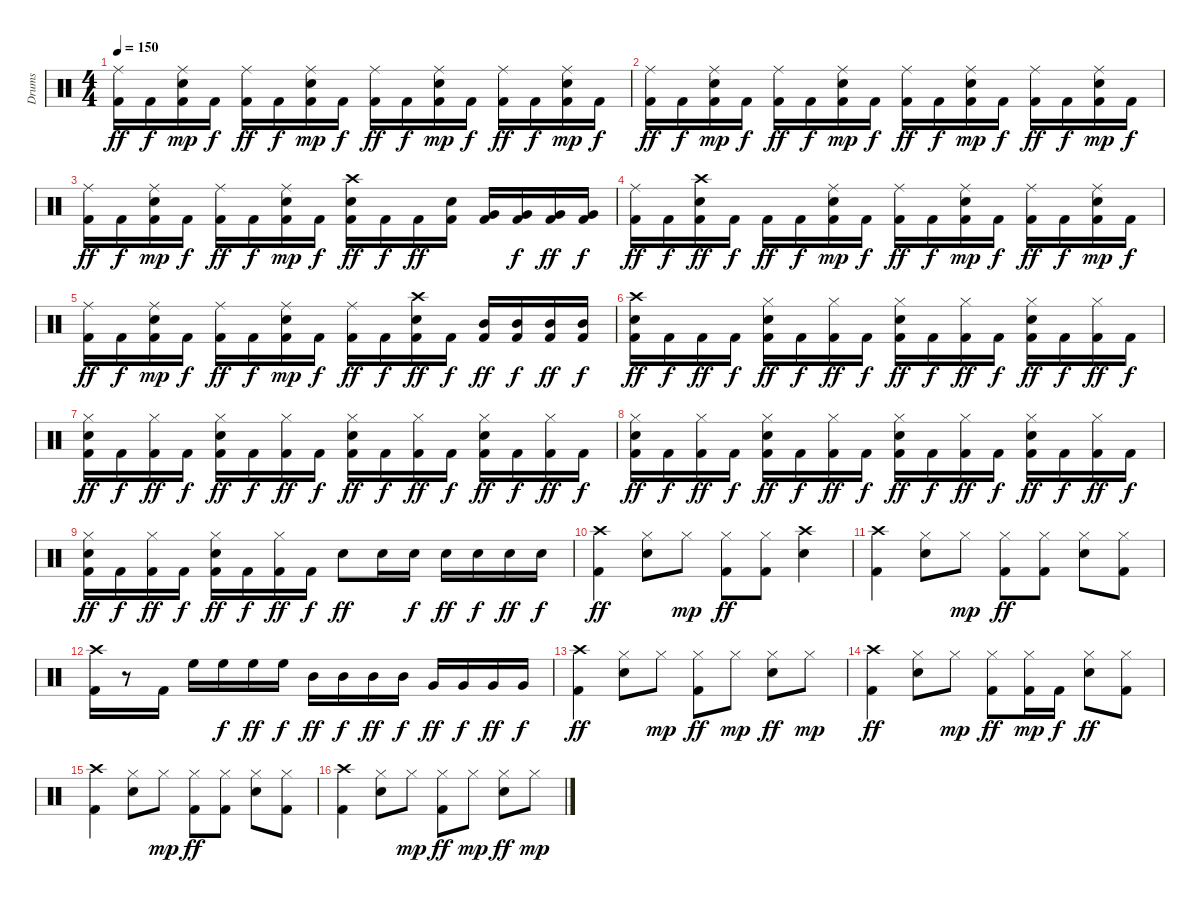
\track ("Drums" "Drums") {instrument percussion}
\staff {score}
\articulation defaults
\ts (4 4)
\tempo 150
\clef neutral
\ks c
("Ride (middle)" "Kick (hit) 2").16{dy ff} "Kick (hit) 2".16{dy f} ("Kick (hit) 2" "Snare (hit) 2" "Ride (middle)").16{dy mp} "Kick (hit) 2".16{dy f} ("Ride (middle)" "Kick (hit) 2").16{dy ff} "Kick (hit) 2".16{dy f} ("Kick (hit) 2" "Snare (hit) 2" "Ride (middle)").16{dy mp} "Kick (hit) 2".16{dy f} ("Ride (middle)" "Kick (hit) 2").16{dy ff} "Kick (hit) 2".16{dy f} ("Kick (hit) 2" "Snare (hit) 2" "Ride (middle)").16{dy mp} "Kick (hit) 2".16{dy f} ("Ride (middle)" "Kick (hit) 2").16{dy ff} "Kick (hit) 2".16{dy f} ("Kick (hit) 2" "Snare (hit) 2" "Ride (middle)").16{dy mp} "Kick (hit) 2".16{dy f} |
("Ride (middle)" "Kick (hit) 2").16{dy ff} "Kick (hit) 2".16{dy f} ("Kick (hit) 2" "Snare (hit) 2" "Ride (middle)").16{dy mp} "Kick (hit) 2".16{dy f} ("Ride (middle)" "Kick (hit) 2").16{dy ff} "Kick (hit) 2".16{dy f} ("Kick (hit) 2" "Snare (hit) 2" "Ride (middle)").16{dy mp} "Kick (hit) 2".16{dy f} ("Ride (middle)" "Kick (hit) 2").16{dy ff} "Kick (hit) 2".16{dy f} ("Kick (hit) 2" "Snare (hit) 2" "Ride (middle)").16{dy mp} "Kick (hit) 2".16{dy f} ("Ride (middle)" "Kick (hit) 2").16{dy ff} "Kick (hit) 2".16{dy f} ("Kick (hit) 2" "Snare (hit) 2" "Ride (middle)").16{dy mp} "Kick (hit) 2".16{dy f} |
("Ride (middle)" "Kick (hit) 2").16{dy ff} "Kick (hit) 2".16{dy f} ("Kick (hit) 2" "Snare (hit) 2" "Ride (middle)").16{dy mp} "Kick (hit) 2".16{dy f} ("Ride (middle)" "Kick (hit) 2").16{dy ff} "Kick (hit) 2".16{dy f} ("Kick (hit) 2" "Snare (hit) 2" "Ride (middle)").16{dy mp} "Kick (hit) 2".16{dy f} ("Kick (hit) 2" "Crash high (hit)" "Snare (hit) 2").16{dy ff} "Kick (hit) 2".16{dy f} "Kick (hit) 2".16{dy ff} ("Snare (hit) 2" "Kick (hit) 2").16 ("Very Low Tom (hit)" "Kick (hit) 2").16 ("Very Low Tom (hit)" "Kick (hit) 2").16{dy f} ("Very Low Tom (hit)" "Kick (hit) 2").16{dy ff} ("Very Low Tom (hit)" "Kick (hit) 2").16{dy f} |
("Ride (middle)" "Kick (hit) 2").16{dy ff} "Kick (hit) 2".16{dy f} ("Snare (hit) 2" "Crash high (hit)" "Kick (hit) 2").16{dy ff} "Kick (hit) 2".16{dy f} "Kick (hit) 2".16{dy ff} "Kick (hit) 2".16{dy f} ("Kick (hit) 2" "Snare (hit) 2" "Ride (middle)").16{dy mp} "Kick (hit) 2".16{dy f} ("Ride (middle)" "Kick (hit) 2").16{dy ff} "Kick (hit) 2".16{dy f} ("Kick (hit) 2" "Snare (hit) 2" "Ride (middle)").16{dy mp} "Kick (hit) 2".16{dy f} ("Ride (middle)" "Kick (hit) 2").16{dy ff} "Kick (hit) 2".16{dy f} ("Kick (hit) 2" "Snare (hit) 2" "Ride (middle)").16{dy mp} "Kick (hit) 2".16{dy f} |
("Ride (middle)" "Kick (hit) 2").16{dy ff} "Kick (hit) 2".16{dy f} ("Kick (hit) 2" "Snare (hit) 2" "Ride (middle)").16{dy mp} "Kick (hit) 2".16{dy f} ("Ride (middle)" "Kick (hit) 2").16{dy ff} "Kick (hit) 2".16{dy f} ("Kick (hit) 2" "Snare (hit) 2" "Ride (middle)").16{dy mp} "Kick (hit) 2".16{dy f} ("Ride (middle)" "Kick (hit) 2").16{dy ff} "Kick (hit) 2".16{dy f} ("Kick (hit) 2" "Crash high (hit)" "Snare (hit) 2").16{dy ff} "Kick (hit) 2".16{dy f} ("Mid Tom (hit)" "Kick (hit) 2").16{dy ff} ("Mid Tom (hit)" "Kick (hit) 2").16{dy f} ("Mid Tom (hit)" "Kick (hit) 2").16{dy ff} ("Mid Tom (hit)" "Kick (hit) 2").16{dy f} |
("Crash high (hit)" "Snare (hit) 2" "Kick (hit) 2").16{dy ff} "Kick (hit) 2".16{dy f} "Kick (hit) 2".16{dy ff} "Kick (hit) 2".16{dy f} ("Kick (hit) 2" "Snare (hit) 2" "Hi-Hat (closed)").16{dy ff} "Kick (hit) 2".16{dy f} ("Hi-Hat (closed)" "Kick (hit) 2").16{dy ff} "Kick (hit) 2".16{dy f} ("Kick (hit) 2" "Snare (hit) 2" "Hi-Hat (closed)").16{dy ff} "Kick (hit) 2".16{dy f} ("Hi-Hat (closed)" "Kick (hit) 2").16{dy ff} "Kick (hit) 2".16{dy f} ("Kick (hit) 2" "Snare (hit) 2" "Hi-Hat (closed)").16{dy ff} "Kick (hit) 2".16{dy f} ("Hi-Hat (closed)" "Kick (hit) 2").16{dy ff} "Kick (hit) 2".16{dy f} |
("Kick (hit) 2" "Snare (hit) 2" "Hi-Hat (closed)").16{dy ff} "Kick (hit) 2".16{dy f} ("Hi-Hat (closed)" "Kick (hit) 2").16{dy ff} "Kick (hit) 2".16{dy f} ("Kick (hit) 2" "Snare (hit) 2" "Hi-Hat (closed)").16{dy ff} "Kick (hit) 2".16{dy f} ("Hi-Hat (closed)" "Kick (hit) 2").16{dy ff} "Kick (hit) 2".16{dy f} ("Kick (hit) 2" "Snare (hit) 2" "Hi-Hat (closed)").16{dy ff} "Kick (hit) 2".16{dy f} ("Hi-Hat (closed)" "Kick (hit) 2").16{dy ff} "Kick (hit) 2".16{dy f} ("Kick (hit) 2" "Snare (hit) 2" "Hi-Hat (closed)").16{dy ff} "Kick (hit) 2".16{dy f} ("Hi-Hat (closed)" "Kick (hit) 2").16{dy ff} "Kick (hit) 2".16{dy f} |
("Kick (hit) 2" "Snare (hit) 2" "Hi-Hat (closed)").16{dy ff} "Kick (hit) 2".16{dy f} ("Hi-Hat (closed)" "Kick (hit) 2").16{dy ff} "Kick (hit) 2".16{dy f} ("Kick (hit) 2" "Snare (hit) 2" "Hi-Hat (closed)").16{dy ff} "Kick (hit) 2".16{dy f} ("Hi-Hat (closed)" "Kick (hit) 2").16{dy ff} "Kick (hit) 2".16{dy f} ("Kick (hit) 2" "Snare (hit) 2" "Hi-Hat (closed)").16{dy ff} "Kick (hit) 2".16{dy f} ("Hi-Hat (closed)" "Kick (hit) 2").16{dy ff} "Kick (hit) 2".16{dy f} ("Kick (hit) 2" "Snare (hit) 2" "Hi-Hat (closed)").16{dy ff} "Kick (hit) 2".16{dy f} ("Hi-Hat (closed)" "Kick (hit) 2").16{dy ff} "Kick (hit) 2".16{dy f} |
("Kick (hit) 2" "Snare (hit) 2" "Hi-Hat (closed)").16{dy ff} "Kick (hit) 2".16{dy f} ("Hi-Hat (closed)" "Kick (hit) 2").16{dy ff} "Kick (hit) 2".16{dy f} ("Kick (hit) 2" "Snare (hit) 2" "Hi-Hat (closed)").16{dy ff} "Kick (hit) 2".16{dy f} ("Hi-Hat (closed)" "Kick (hit) 2").16{dy ff} "Kick (hit) 2".16{dy f} "Snare (hit) 2".8{dy ff} "Snare (hit) 2".16 "Snare (hit) 2".16{dy f} "Snare (hit) 2".16{dy ff} "Snare (hit) 2".16{dy f} "Snare (hit) 2".16{dy ff} "Snare (hit) 2".16{dy f} |
("Crash high (hit)" "Kick (hit) 2").4{dy ff} ("Hi-Hat (closed)" "Snare (hit) 2").8 "Hi-Hat (closed)".8{dy mp} ("Hi-Hat (closed)" "Kick (hit) 2").8{dy ff} ("Hi-Hat (closed)" "Kick (hit) 2").8 ("Crash high (hit)" "Snare (hit) 2").4 |
("Crash high (hit)" "Kick (hit) 2").4 ("Hi-Hat (closed)" "Snare (hit) 2").8 "Hi-Hat (closed)".8{dy mp} ("Hi-Hat (closed)" "Kick (hit) 2").8{dy ff} ("Hi-Hat (closed)" "Kick (hit) 2").8 ("Hi-Hat (closed)" "Snare (hit) 2").8 ("Hi-Hat (closed)" "Kick (hit) 2").8 |
("Crash high (hit)" "Kick (hit) 2").16 r.8 "Kick (hit) 2".16 "High Floor Tom (hit)".16 "High Floor Tom (hit)".16{dy f} "High Floor Tom (hit)".16{dy ff} "High Floor Tom (hit)".16{dy f} "Mid Tom (hit)".16{dy ff} "Mid Tom (hit)".16{dy f} "Mid Tom (hit)".16{dy ff} "Mid Tom (hit)".16{dy f} "Very Low Tom (hit)".16{dy ff} "Very Low Tom (hit)".16{dy f} "Very Low Tom (hit)".16{dy ff} "Very Low Tom (hit)".16{dy f} |
("Crash high (hit)" "Kick (hit) 2").4{dy ff} ("Hi-Hat (closed)" "Snare (hit) 2").8 "Hi-Hat (closed)".8{dy mp} ("Kick (hit) 2" "Hi-Hat (closed)").8{dy ff} "Hi-Hat (closed)".8{dy mp} ("Hi-Hat (closed)" "Snare (hit) 2").8{dy ff} "Hi-Hat (closed)".8{dy mp} |
("Crash high (hit)" "Kick (hit) 2").4{dy ff} ("Hi-Hat (closed)" "Snare (hit) 2").8 "Hi-Hat (closed)".8{dy mp} ("Hi-Hat (closed)" "Kick (hit) 2").8{dy ff} ("Kick (hit) 2" "Hi-Hat (closed)").16{dy mp} "Kick (hit) 2".16{dy f} ("Hi-Hat (closed)" "Snare (hit) 2").8{dy ff} ("Hi-Hat (closed)" "Kick (hit) 2").8 |
("Crash high (hit)" "Kick (hit) 2").4 ("Hi-Hat (closed)" "Snare (hit) 2").8 "Hi-Hat (closed)".8{dy mp} ("Hi-Hat (closed)" "Kick (hit) 2").8{dy ff} ("Hi-Hat (closed)" "Kick (hit) 2").8 ("Hi-Hat (closed)" "Snare (hit) 2").8 ("Hi-Hat (closed)" "Kick (hit) 2").8 |
("Crash high (hit)" "Kick (hit) 2").4 ("Hi-Hat (closed)" "Snare (hit) 2").8 "Hi-Hat (closed)".8{dy mp} ("Kick (hit) 2" "Hi-Hat (closed)").8{dy ff} "Hi-Hat (closed)".8{dy mp} ("Hi-Hat (closed)" "Snare (hit) 2").8{dy ff} "Hi-Hat (closed)".8{dy mp}
